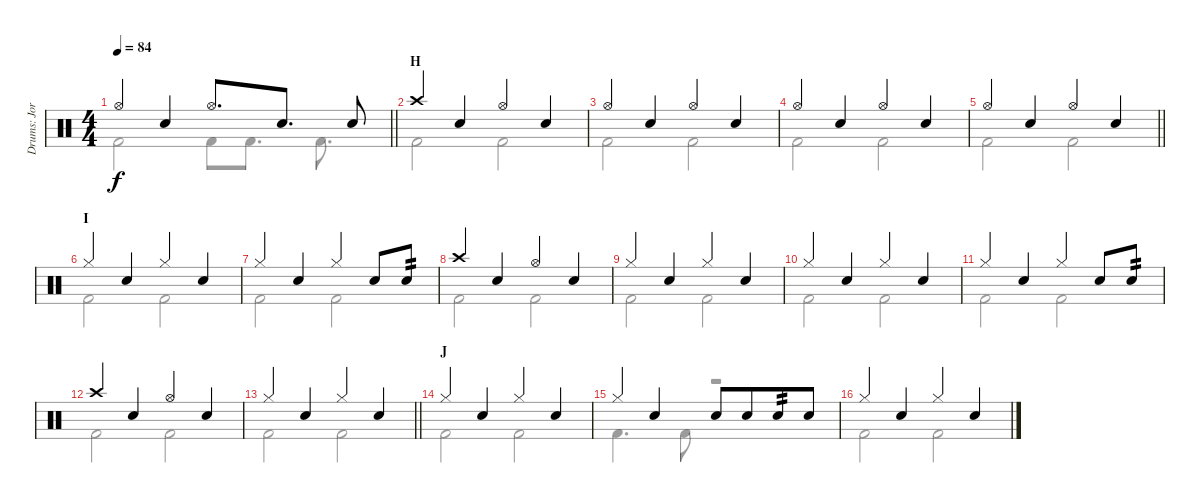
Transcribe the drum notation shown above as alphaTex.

\track ("Drums: Jorg" "Drums: Jor") {instrument percussion}
\staff {score}
\articulation defaults
\voice
\ts (4 4)
\tempo 84
\clef neutral
\barLineRight lightlight
\ks c "Hi-Hat (open)".4{dy f} "Snare (hit) 2".4 "Hi-Hat (open)".8{d} "Snare (hit) 2".8{d} "Snare (hit) 2".8
|
\section ("" "H")
"Crash high (hit)".4 "Snare (hit) 2".4 "Hi-Hat (open)".4 "Snare (hit) 2".4 |
"Hi-Hat (open)".4 "Snare (hit) 2".4 "Hi-Hat (open)".4 "Snare (hit) 2".4 |
"Hi-Hat (open)".4 "Snare (hit) 2".4 "Hi-Hat (open)".4 "Snare (hit) 2".4 |
\barLineRight lightlight "Hi-Hat (open)".4 "Snare (hit) 2".4 "Hi-Hat (open)".4 "Snare (hit) 2".4
|
\section ("" "I")
"Hi-Hat (closed)".4 "Snare (hit) 2".4 "Hi-Hat (closed)".4 "Snare (hit) 2".4 |
"Hi-Hat (closed)".4 "Snare (hit) 2".4 "Hi-Hat (closed)".4 "Snare (hit) 2".8 "Electric Snare (hit)".8{tp 2} |
"Crash high (hit)".4 "Snare (hit) 2".4 "Hi-Hat (open)".4 "Snare (hit) 2".4 |
"Hi-Hat (closed)".4 "Snare (hit) 2".4 "Hi-Hat (closed)".4 "Snare (hit) 2".4 |
"Hi-Hat (closed)".4 "Snare (hit) 2".4 "Hi-Hat (closed)".4 "Snare (hit) 2".4 |
"Hi-Hat (closed)".4 "Snare (hit) 2".4 "Hi-Hat (closed)".4 "Snare (hit) 2".8 "Electric Snare (hit)".8{tp 2} |
"Crash high (hit)".4 "Snare (hit) 2".4 "Hi-Hat (open)".4 "Snare (hit) 2".4 |
\barLineRight lightlight "Hi-Hat (closed)".4 "Snare (hit) 2".4 "Hi-Hat (closed)".4 "Snare (hit) 2".4
|
\section ("" "J")
"Hi-Hat (closed)".4 "Snare (hit) 2".4 "Hi-Hat (closed)".4 "Snare (hit) 2".4 |
"Hi-Hat (closed)".4 "Snare (hit) 2".4 "Snare (hit) 2".8 "Snare (hit) 2".8{beam merge} "Electric Snare (hit)".8{tp 2} "Snare (hit) 2".8 |
"Hi-Hat (closed)".4 "Snare (hit) 2".4 "Hi-Hat (closed)".4 "Snare (hit) 2".4
\voice
\clef neutral
\ottava regular
\simile none
\barLineRight lightlight
\ks c "Kick (hit) 2".2{dy f} "Kick (hit) 2".8 "Kick (hit) 2".8{d} "Kick (hit) 2".8{d}
|
"Kick (hit) 2".2 "Kick (hit) 2".2 |
"Kick (hit) 2".2 "Kick (hit) 2".2 |
"Kick (hit) 2".2 "Kick (hit) 2".2 |
\barLineRight lightlight "Kick (hit) 2".2 "Kick (hit) 2".2
|
"Kick (hit) 2".2 "Kick (hit) 2".2 |
"Kick (hit) 2".2 "Kick (hit) 2".2 |
"Kick (hit) 2".2 "Kick (hit) 2".2 |
"Kick (hit) 2".2 "Kick (hit) 2".2 |
"Kick (hit) 2".2 "Kick (hit) 2".2 |
"Kick (hit) 2".2 "Kick (hit) 2".2 |
"Kick (hit) 2".2 "Kick (hit) 2".2 |
\barLineRight lightlight "Kick (hit) 2".2 "Kick (hit) 2".2
|
"Kick (hit) 2".2 "Kick (hit) 2".2 |
"Kick (hit) 2".4{d} "Kick (hit) 2".8 r.2 |
"Kick (hit) 2".2 "Kick (hit) 2".2
